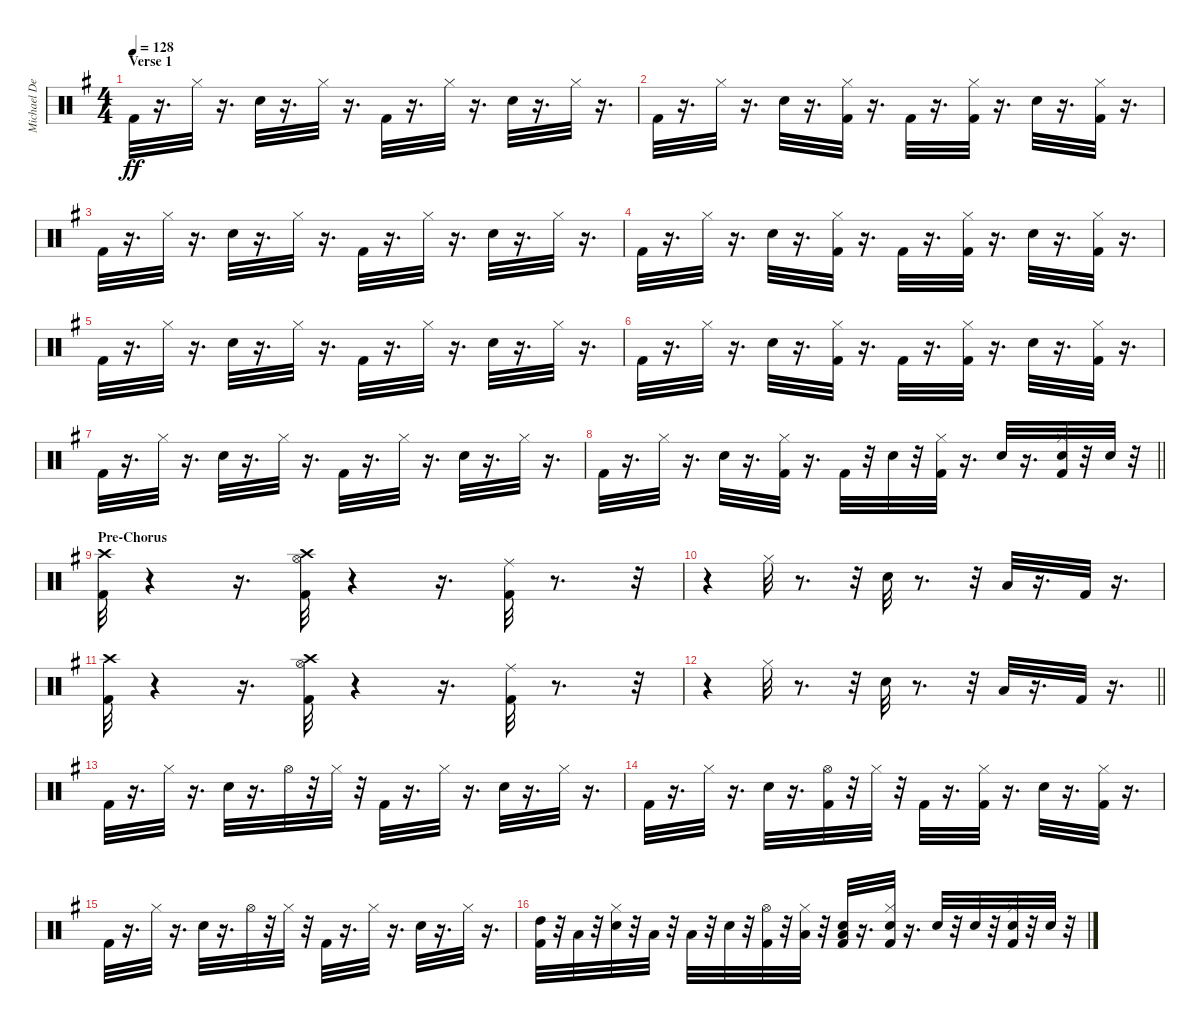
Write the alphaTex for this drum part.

\track ("Michael DeRosier" "Michael De") {instrument percussion}
\staff {score}
\articulation defaults
\ts (4 4)
\section ("" "Verse 1")
\tempo 128
\clef neutral
\ks g "Kick (hit) 2".32{dy ff}
r.16{d} "Hi-Hat (closed)".32 r.16{d} "Snare (hit) 2".32 r.16{d} "Hi-Hat (closed)".32 r.16{d} "Kick (hit) 2".32 r.16{d} "Hi-Hat (closed)".32 r.16{d} "Snare (hit) 2".32 r.16{d} "Hi-Hat (closed)".32 r.16{d} |
"Kick (hit) 2".32 r.16{d} "Hi-Hat (closed)".32 r.16{d} "Snare (hit) 2".32 r.16{d} ("Kick (hit) 2" "Hi-Hat (closed)").32 r.16{d} "Kick (hit) 2".32 r.16{d} ("Kick (hit) 2" "Hi-Hat (closed)").32 r.16{d} "Snare (hit) 2".32 r.16{d} ("Kick (hit) 2" "Hi-Hat (closed)").32 r.16{d} |
"Kick (hit) 2".32 r.16{d} "Hi-Hat (closed)".32 r.16{d} "Snare (hit) 2".32 r.16{d} "Hi-Hat (closed)".32 r.16{d} "Kick (hit) 2".32 r.16{d} "Hi-Hat (closed)".32 r.16{d} "Snare (hit) 2".32 r.16{d} "Hi-Hat (closed)".32 r.16{d} |
"Kick (hit) 2".32 r.16{d} "Hi-Hat (closed)".32 r.16{d} "Snare (hit) 2".32 r.16{d} ("Kick (hit) 2" "Hi-Hat (closed)").32 r.16{d} "Kick (hit) 2".32 r.16{d} ("Kick (hit) 2" "Hi-Hat (closed)").32 r.16{d} "Snare (hit) 2".32 r.16{d} ("Kick (hit) 2" "Hi-Hat (closed)").32 r.16{d} |
"Kick (hit) 2".32 r.16{d} "Hi-Hat (closed)".32 r.16{d} "Snare (hit) 2".32 r.16{d} "Hi-Hat (closed)".32 r.16{d} "Kick (hit) 2".32 r.16{d} "Hi-Hat (closed)".32 r.16{d} "Snare (hit) 2".32 r.16{d} "Hi-Hat (closed)".32 r.16{d} |
"Kick (hit) 2".32 r.16{d} "Hi-Hat (closed)".32 r.16{d} "Snare (hit) 2".32 r.16{d} ("Kick (hit) 2" "Hi-Hat (closed)").32 r.16{d} "Kick (hit) 2".32 r.16{d} ("Kick (hit) 2" "Hi-Hat (closed)").32 r.16{d} "Snare (hit) 2".32 r.16{d} ("Kick (hit) 2" "Hi-Hat (closed)").32 r.16{d} |
"Kick (hit) 2".32 r.16{d} "Hi-Hat (closed)".32 r.16{d} "Snare (hit) 2".32 r.16{d} "Hi-Hat (closed)".32 r.16{d} "Kick (hit) 2".32 r.16{d} "Hi-Hat (closed)".32 r.16{d} "Snare (hit) 2".32 r.16{d} "Hi-Hat (closed)".32 r.16{d} |
\barLineRight lightlight "Kick (hit) 2".32
r.16{d} "Hi-Hat (closed)".32 r.16{d} "Snare (hit) 2".32 r.16{d} ("Kick (hit) 2" "Hi-Hat (closed)").32 r.16{d} "Kick (hit) 2".32 r.32 "Snare (hit) 2".32 r.32 ("Kick (hit) 2" "Hi-Hat (closed)").32 r.16{d} "Snare (hit) 2".32 r.16{d} ("Kick (hit) 2" "Snare (hit) 2" "Hi-Hat (closed)").32 r.32 "Snare (hit) 2".32 r.32 |
\section ("" "Pre-Chorus")
("Kick (hit) 2" "Crash high (hit)").32 r.4 r.16{d} ("Kick (hit) 2" "Crash high (hit)" "Hi-Hat (open)").32 r.4 r.16{d} ("Kick (hit) 2" "Ride (middle)").32 r.8{d} r.32 |
r.4 "Hi-Hat (closed)".32 r.8{d} r.32 "Snare (hit) 2".32 r.8{d} r.32 "Low Floor Tom (hit)".32 r.16{d} "Kick (hit) 2".32 r.16{d} |
("Kick (hit) 2" "Crash high (hit)").32 r.4 r.16{d} ("Kick (hit) 2" "Crash high (hit)" "Hi-Hat (open)").32 r.4 r.16{d} ("Kick (hit) 2" "Ride (middle)").32 r.8{d} r.32 |
\barLineRight lightlight
r.4 "Hi-Hat (closed)".32 r.8{d} r.32 "Snare (hit) 2".32 r.8{d} r.32 "Low Floor Tom (hit)".32 r.16{d} "Kick (hit) 2".32 r.16{d} |
"Kick (hit) 2".32 r.16{d} "Hi-Hat (closed)".32 r.16{d} "Snare (hit) 2".32 r.16{d} "Hi-Hat (open)".32 r.32 "Hi-Hat (closed)".32 r.32 "Kick (hit) 2".32 r.16{d} "Hi-Hat (closed)".32 r.16{d} "Snare (hit) 2".32 r.16{d} "Hi-Hat (closed)".32 r.16{d} |
"Kick (hit) 2".32 r.16{d} "Hi-Hat (closed)".32 r.16{d} "Snare (hit) 2".32 r.16{d} ("Kick (hit) 2" "Hi-Hat (open)").32 r.32 "Hi-Hat (closed)".32 r.32 "Kick (hit) 2".32 r.16{d} ("Kick (hit) 2" "Hi-Hat (closed)").32 r.16{d} "Snare (hit) 2".32 r.16{d} ("Kick (hit) 2" "Hi-Hat (closed)").32 r.16{d} |
"Kick (hit) 2".32 r.16{d} "Hi-Hat (closed)".32 r.16{d} "Snare (hit) 2".32 r.16{d} "Hi-Hat (open)".32 r.32 "Hi-Hat (closed)".32 r.32 "Kick (hit) 2".32 r.16{d} "Hi-Hat (closed)".32 r.16{d} "Snare (hit) 2".32 r.16{d} "Hi-Hat (closed)".32 r.16{d} |
("Kick (hit) 2" "High Tom (hit)").32 r.32 "Low Tom (hit)".32 r.32 ("Snare (hit) 2" "Hi-Hat (closed)").32 r.32 "Low Tom (hit)".32 r.32 "Low Floor Tom (hit)".32 r.32 "Snare (hit) 2".32 r.32 ("Kick (hit) 2" "Hi-Hat (open)").32 r.32 ("Hi-Hat (closed)" "Low Floor Tom (hit)").32 r.32 ("Kick (hit) 2" "Snare (hit) 2" "Low Floor Tom (hit)").32 r.16{d} ("Kick (hit) 2" "Snare (hit) 2" "Hi-Hat (closed)").32 r.16{d} "Snare (hit) 2".32 r.32 "Snare (hit) 2".32 r.32 ("Kick (hit) 2" "Snare (hit) 2" "Hi-Hat (closed)").32 r.32 "Snare (hit) 2".32 r.32
